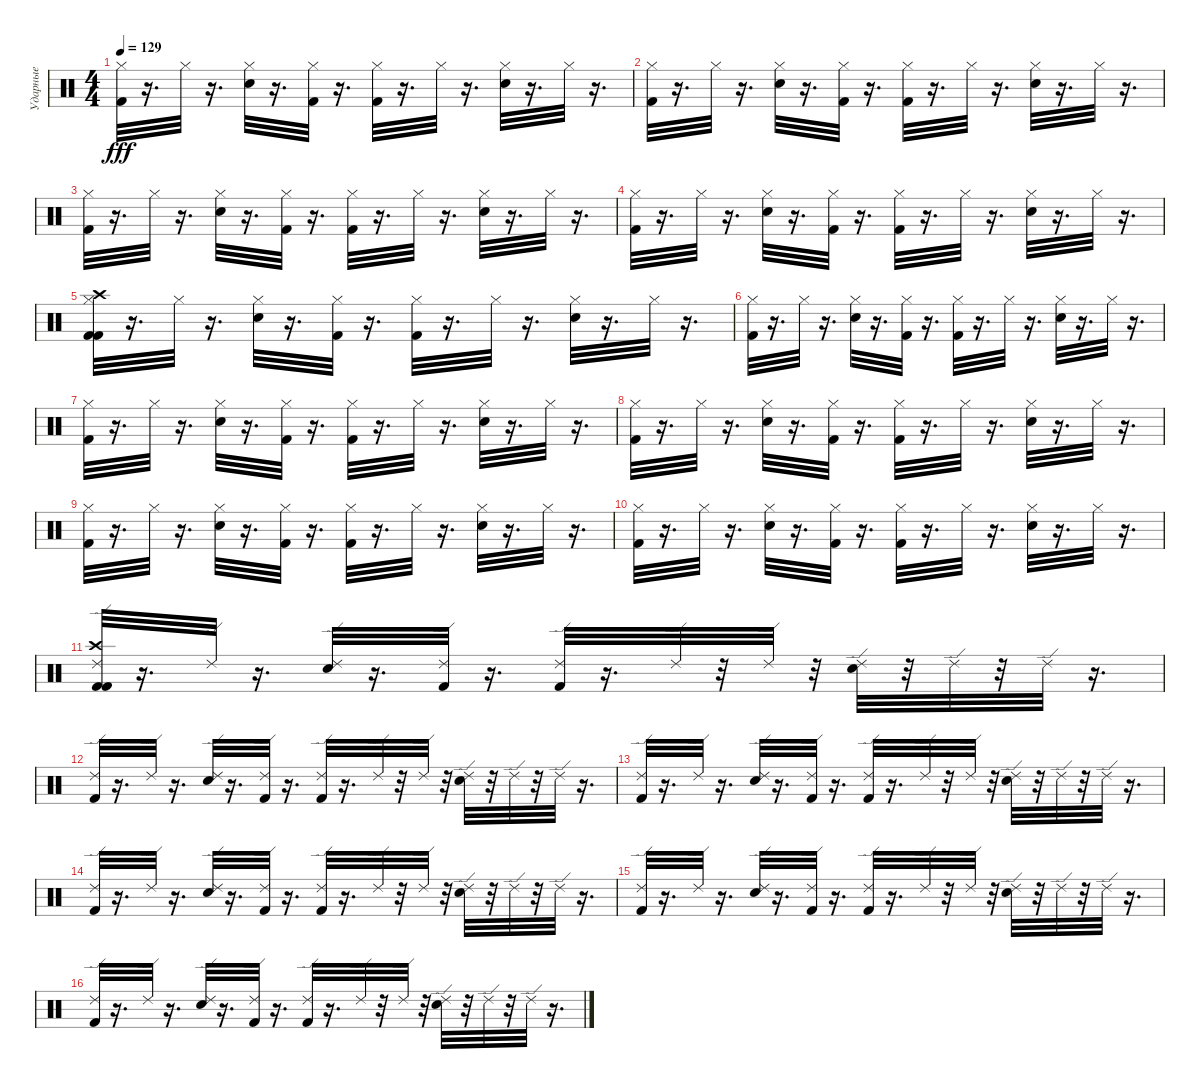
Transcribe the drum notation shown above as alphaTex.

\track ("Ударные" "Ударные") {instrument percussion}
\staff {score}
\articulation defaults
\ts (4 4)
\tempo 129
\clef neutral
\ks c
("Kick (hit) 2" "Hi-Hat (closed)").32{dy fff balance 10} r.16{d} "Hi-Hat (closed)".32{balance 10} r.16{d} ("Electric Snare (hit)" "Hi-Hat (closed)").32{balance 10} r.16{d} ("Kick (hit) 2" "Hi-Hat (closed)").32{balance 10} r.16{d} ("Kick (hit) 2" "Hi-Hat (closed)").32{balance 10} r.16{d} "Hi-Hat (closed)".32{balance 10} r.16{d} ("Electric Snare (hit)" "Hi-Hat (closed)").32{balance 10} r.16{d} "Hi-Hat (closed)".32{balance 10} r.16{d} |
("Kick (hit) 2" "Hi-Hat (closed)").32{balance 10} r.16{d} "Hi-Hat (closed)".32{balance 10} r.16{d} ("Electric Snare (hit)" "Hi-Hat (closed)").32{balance 10} r.16{d} ("Kick (hit) 2" "Hi-Hat (closed)").32{balance 10} r.16{d} ("Kick (hit) 2" "Hi-Hat (closed)").32{balance 10} r.16{d} "Hi-Hat (closed)".32{balance 10} r.16{d} ("Electric Snare (hit)" "Hi-Hat (closed)").32{balance 10} r.16{d} "Hi-Hat (closed)".32{balance 10} r.16{d} |
("Kick (hit) 2" "Hi-Hat (closed)").32{balance 10} r.16{d} "Hi-Hat (closed)".32{balance 10} r.16{d} ("Electric Snare (hit)" "Hi-Hat (closed)").32{balance 10} r.16{d} ("Kick (hit) 2" "Hi-Hat (closed)").32{balance 10} r.16{d} ("Kick (hit) 2" "Hi-Hat (closed)").32{balance 10} r.16{d} "Hi-Hat (closed)".32{balance 10} r.16{d} ("Electric Snare (hit)" "Hi-Hat (closed)").32{balance 10} r.16{d} "Hi-Hat (closed)".32{balance 10} r.16{d} |
("Kick (hit) 2" "Hi-Hat (closed)").32{balance 10} r.16{d} "Hi-Hat (closed)".32{balance 10} r.16{d} ("Electric Snare (hit)" "Hi-Hat (closed)").32{balance 10} r.16{d} ("Kick (hit) 2" "Hi-Hat (closed)").32{balance 10} r.16{d} ("Kick (hit) 2" "Hi-Hat (closed)").32{balance 10} r.16{d} "Hi-Hat (closed)".32{balance 10} r.16{d} ("Electric Snare (hit)" "Hi-Hat (closed)").32{balance 10} r.16{d} "Hi-Hat (closed)".32{balance 10} r.16{d} |
("Kick (hit) 2" "Crash high (hit)" "Kick (hit) 2" "Hi-Hat (closed)").32{balance 10} r.16{d} "Hi-Hat (closed)".32{balance 10} r.16{d} ("Electric Snare (hit)" "Hi-Hat (closed)").32{balance 10} r.16{d} ("Kick (hit) 2" "Hi-Hat (closed)").32{balance 10} r.16{d} ("Kick (hit) 2" "Hi-Hat (closed)").32{balance 10} r.16{d} "Hi-Hat (closed)".32{balance 10} r.16{d} ("Electric Snare (hit)" "Hi-Hat (closed)").32{balance 10} r.16{d} "Hi-Hat (closed)".32{balance 10} r.16{d} |
("Kick (hit) 2" "Hi-Hat (closed)").32{balance 10} r.16{d} "Hi-Hat (closed)".32{balance 10} r.16{d} ("Electric Snare (hit)" "Hi-Hat (closed)").32{balance 10} r.16{d} ("Kick (hit) 2" "Hi-Hat (closed)").32{balance 10} r.16{d} ("Kick (hit) 2" "Hi-Hat (closed)").32{balance 10} r.16{d} "Hi-Hat (closed)".32{balance 10} r.16{d} ("Electric Snare (hit)" "Hi-Hat (closed)").32{balance 10} r.16{d} "Hi-Hat (closed)".32{balance 10} r.16{d} |
("Kick (hit) 2" "Hi-Hat (closed)").32{balance 10} r.16{d} "Hi-Hat (closed)".32{balance 10} r.16{d} ("Electric Snare (hit)" "Hi-Hat (closed)").32{balance 10} r.16{d} ("Kick (hit) 2" "Hi-Hat (closed)").32{balance 10} r.16{d} ("Kick (hit) 2" "Hi-Hat (closed)").32{balance 10} r.16{d} "Hi-Hat (closed)".32{balance 10} r.16{d} ("Electric Snare (hit)" "Hi-Hat (closed)").32{balance 10} r.16{d} "Hi-Hat (closed)".32{balance 10} r.16{d} |
("Kick (hit) 2" "Hi-Hat (closed)").32{balance 10} r.16{d} "Hi-Hat (closed)".32{balance 10} r.16{d} ("Electric Snare (hit)" "Hi-Hat (closed)").32{balance 10} r.16{d} ("Kick (hit) 2" "Hi-Hat (closed)").32{balance 10} r.16{d} ("Kick (hit) 2" "Hi-Hat (closed)").32{balance 10} r.16{d} "Hi-Hat (closed)".32{balance 10} r.16{d} ("Electric Snare (hit)" "Hi-Hat (closed)").32{balance 10} r.16{d} "Hi-Hat (closed)".32{balance 10} r.16{d} |
("Kick (hit) 2" "Hi-Hat (closed)").32{balance 10} r.16{d} "Hi-Hat (closed)".32{balance 10} r.16{d} ("Electric Snare (hit)" "Hi-Hat (closed)").32{balance 10} r.16{d} ("Kick (hit) 2" "Hi-Hat (closed)").32{balance 10} r.16{d} ("Kick (hit) 2" "Hi-Hat (closed)").32{balance 10} r.16{d} "Hi-Hat (closed)".32{balance 10} r.16{d} ("Electric Snare (hit)" "Hi-Hat (closed)").32{balance 10} r.16{d} "Hi-Hat (closed)".32{balance 10} r.16{d} |
("Kick (hit) 2" "Hi-Hat (closed)").32{balance 10} r.16{d} "Hi-Hat (closed)".32{balance 10} r.16{d} ("Electric Snare (hit)" "Hi-Hat (closed)").32{balance 10} r.16{d} ("Kick (hit) 2" "Hi-Hat (closed)").32{balance 10} r.16{d} ("Kick (hit) 2" "Hi-Hat (closed)").32{balance 10} r.16{d} "Hi-Hat (closed)".32{balance 10} r.16{d} ("Electric Snare (hit)" "Hi-Hat (closed)").32{balance 10} r.16{d} "Hi-Hat (closed)".32{balance 10} r.16{d} |
("Kick (hit) 2" "Crash high (hit)" "Kick (hit) 2" "Ride (edge) 2").32{balance 8} r.16{d} "Ride (edge) 2".32{balance 8} r.16{d} ("Electric Snare (hit)" "Ride (edge) 2").32{balance 8} r.16{d} ("Kick (hit) 2" "Ride (edge) 2").32{balance 8} r.16{d} ("Kick (hit) 2" "Ride (edge) 2").32{balance 8} r.16{d} "Ride (edge) 2".32{balance 8} r.32 "Ride (edge) 2".32{balance 8} r.32 ("Electric Snare (hit)" "Ride (edge) 2").32{balance 8} r.32 "Ride (edge) 2".32{balance 8} r.32 "Ride (edge) 2".32{balance 8} r.16{d} |
("Kick (hit) 2" "Ride (edge) 2").32{balance 8} r.16{d} "Ride (edge) 2".32{balance 8} r.16{d} ("Electric Snare (hit)" "Ride (edge) 2").32{balance 8} r.16{d} ("Kick (hit) 2" "Ride (edge) 2").32{balance 8} r.16{d} ("Kick (hit) 2" "Ride (edge) 2").32{balance 8} r.16{d} "Ride (edge) 2".32{balance 8} r.32 "Ride (edge) 2".32{balance 8} r.32 ("Electric Snare (hit)" "Ride (edge) 2").32{balance 8} r.32 "Ride (edge) 2".32{balance 8} r.32 "Ride (edge) 2".32{balance 8} r.16{d} |
("Kick (hit) 2" "Ride (edge) 2").32{balance 8} r.16{d} "Ride (edge) 2".32{balance 8} r.16{d} ("Electric Snare (hit)" "Ride (edge) 2").32{balance 8} r.16{d} ("Kick (hit) 2" "Ride (edge) 2").32{balance 8} r.16{d} ("Kick (hit) 2" "Ride (edge) 2").32{balance 8} r.16{d} "Ride (edge) 2".32{balance 8} r.32 "Ride (edge) 2".32{balance 8} r.32 ("Electric Snare (hit)" "Ride (edge) 2").32{balance 8} r.32 "Ride (edge) 2".32{balance 8} r.32 "Ride (edge) 2".32{balance 8} r.16{d} |
("Kick (hit) 2" "Ride (edge) 2").32{balance 8} r.16{d} "Ride (edge) 2".32{balance 8} r.16{d} ("Electric Snare (hit)" "Ride (edge) 2").32{balance 8} r.16{d} ("Kick (hit) 2" "Ride (edge) 2").32{balance 8} r.16{d} ("Kick (hit) 2" "Ride (edge) 2").32{balance 8} r.16{d} "Ride (edge) 2".32{balance 8} r.32 "Ride (edge) 2".32{balance 8} r.32 ("Electric Snare (hit)" "Ride (edge) 2").32{balance 8} r.32 "Ride (edge) 2".32{balance 8} r.32 "Ride (edge) 2".32{balance 8} r.16{d} |
("Kick (hit) 2" "Ride (edge) 2").32{balance 8} r.16{d} "Ride (edge) 2".32{balance 8} r.16{d} ("Electric Snare (hit)" "Ride (edge) 2").32{balance 8} r.16{d} ("Kick (hit) 2" "Ride (edge) 2").32{balance 8} r.16{d} ("Kick (hit) 2" "Ride (edge) 2").32{balance 8} r.16{d} "Ride (edge) 2".32{balance 8} r.32 "Ride (edge) 2".32{balance 8} r.32 ("Electric Snare (hit)" "Ride (edge) 2").32{balance 8} r.32 "Ride (edge) 2".32{balance 8} r.32 "Ride (edge) 2".32{balance 8} r.16{d} |
("Kick (hit) 2" "Ride (edge) 2").32{balance 8} r.16{d} "Ride (edge) 2".32{balance 8} r.16{d} ("Electric Snare (hit)" "Ride (edge) 2").32{balance 8} r.16{d} ("Kick (hit) 2" "Ride (edge) 2").32{balance 8} r.16{d} ("Kick (hit) 2" "Ride (edge) 2").32{balance 8} r.16{d} "Ride (edge) 2".32{balance 8} r.32 "Ride (edge) 2".32{balance 8} r.32 ("Electric Snare (hit)" "Ride (edge) 2").32{balance 8} r.32 "Ride (edge) 2".32{balance 8} r.32 "Ride (edge) 2".32{balance 8} r.16{d}
